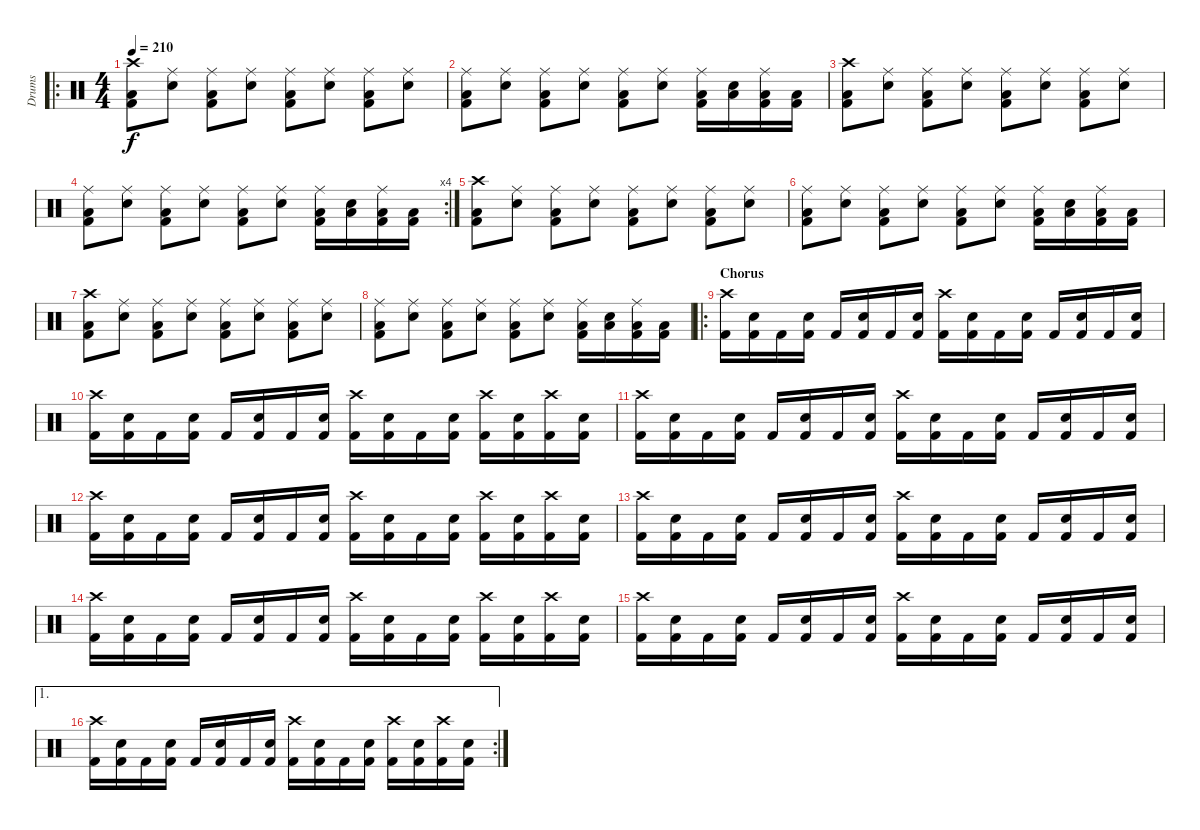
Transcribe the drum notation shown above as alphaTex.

\track ("Drums" "Drums") {instrument percussion}
\staff {score}
\articulation defaults
\ro
\ts (4 4)
\tempo 210
\clef neutral
\ks c
("Crash high (hit)" "Low Floor Tom (hit)" "Kick (hit) 2").8{dy f} ("Ride (middle)" "Snare (hit) 2").8 ("Ride (middle)" "Low Floor Tom (hit)" "Kick (hit) 2").8 ("Ride (middle)" "Snare (hit) 2").8 ("Ride (middle)" "Low Floor Tom (hit)" "Kick (hit) 2").8 ("Ride (middle)" "Snare (hit) 2").8 ("Ride (middle)" "Low Floor Tom (hit)" "Kick (hit) 2").8 ("Ride (middle)" "Snare (hit) 2").8 |
("Ride (middle)" "Low Floor Tom (hit)" "Kick (hit) 2").8 ("Ride (middle)" "Snare (hit) 2").8 ("Ride (middle)" "Low Floor Tom (hit)" "Kick (hit) 2").8 ("Ride (middle)" "Snare (hit) 2").8 ("Ride (middle)" "Low Floor Tom (hit)" "Kick (hit) 2").8 ("Ride (middle)" "Snare (hit) 2").8 ("Ride (middle)" "Low Floor Tom (hit)" "Kick (hit) 2").16 ("Low Floor Tom (hit)" "Snare (hit) 2").16 ("Ride (middle)" "Low Floor Tom (hit)" "Kick (hit) 2").16 ("Low Floor Tom (hit)" "Kick (hit) 2").16 |
("Crash high (hit)" "Low Floor Tom (hit)" "Kick (hit) 2").8 ("Ride (middle)" "Snare (hit) 2").8 ("Ride (middle)" "Low Floor Tom (hit)" "Kick (hit) 2").8 ("Ride (middle)" "Snare (hit) 2").8 ("Ride (middle)" "Low Floor Tom (hit)" "Kick (hit) 2").8 ("Ride (middle)" "Snare (hit) 2").8 ("Ride (middle)" "Low Floor Tom (hit)" "Kick (hit) 2").8 ("Ride (middle)" "Snare (hit) 2").8 |
\rc 4
("Ride (middle)" "Low Floor Tom (hit)" "Kick (hit) 2").8 ("Ride (middle)" "Snare (hit) 2").8 ("Ride (middle)" "Low Floor Tom (hit)" "Kick (hit) 2").8 ("Ride (middle)" "Snare (hit) 2").8 ("Ride (middle)" "Low Floor Tom (hit)" "Kick (hit) 2").8 ("Ride (middle)" "Snare (hit) 2").8 ("Ride (middle)" "Low Floor Tom (hit)" "Kick (hit) 2").16 ("Low Floor Tom (hit)" "Snare (hit) 2").16 ("Ride (middle)" "Low Floor Tom (hit)" "Kick (hit) 2").16 ("Low Floor Tom (hit)" "Kick (hit) 2").16 |
("Crash high (hit)" "Low Floor Tom (hit)" "Kick (hit) 2").8 ("Ride (middle)" "Snare (hit) 2").8 ("Ride (middle)" "Low Floor Tom (hit)" "Kick (hit) 2").8 ("Ride (middle)" "Snare (hit) 2").8 ("Ride (middle)" "Low Floor Tom (hit)" "Kick (hit) 2").8 ("Ride (middle)" "Snare (hit) 2").8 ("Ride (middle)" "Low Floor Tom (hit)" "Kick (hit) 2").8 ("Ride (middle)" "Snare (hit) 2").8 |
("Ride (middle)" "Low Floor Tom (hit)" "Kick (hit) 2").8 ("Ride (middle)" "Snare (hit) 2").8 ("Ride (middle)" "Low Floor Tom (hit)" "Kick (hit) 2").8 ("Ride (middle)" "Snare (hit) 2").8 ("Ride (middle)" "Low Floor Tom (hit)" "Kick (hit) 2").8 ("Ride (middle)" "Snare (hit) 2").8 ("Ride (middle)" "Low Floor Tom (hit)" "Kick (hit) 2").16 ("Low Floor Tom (hit)" "Snare (hit) 2").16 ("Ride (middle)" "Low Floor Tom (hit)" "Kick (hit) 2").16 ("Low Floor Tom (hit)" "Kick (hit) 2").16 |
("Crash high (hit)" "Low Floor Tom (hit)" "Kick (hit) 2").8 ("Ride (middle)" "Snare (hit) 2").8 ("Ride (middle)" "Low Floor Tom (hit)" "Kick (hit) 2").8 ("Ride (middle)" "Snare (hit) 2").8 ("Ride (middle)" "Low Floor Tom (hit)" "Kick (hit) 2").8 ("Ride (middle)" "Snare (hit) 2").8 ("Ride (middle)" "Low Floor Tom (hit)" "Kick (hit) 2").8 ("Ride (middle)" "Snare (hit) 2").8 |
("Ride (middle)" "Low Floor Tom (hit)" "Kick (hit) 2").8 ("Ride (middle)" "Snare (hit) 2").8 ("Ride (middle)" "Low Floor Tom (hit)" "Kick (hit) 2").8 ("Ride (middle)" "Snare (hit) 2").8 ("Ride (middle)" "Low Floor Tom (hit)" "Kick (hit) 2").8 ("Ride (middle)" "Snare (hit) 2").8 ("Ride (middle)" "Low Floor Tom (hit)" "Kick (hit) 2").16 ("Low Floor Tom (hit)" "Snare (hit) 2").16 ("Ride (middle)" "Low Floor Tom (hit)" "Kick (hit) 2").16 ("Low Floor Tom (hit)" "Kick (hit) 2").16 |
\ro
\section ("" "Chorus")
("Crash high (hit)" "Kick (hit) 2").16 ("Snare (hit) 2" "Kick (hit) 2").16 "Kick (hit) 2".16 ("Snare (hit) 2" "Kick (hit) 2").16 "Kick (hit) 2".16 ("Snare (hit) 2" "Kick (hit) 2").16 "Kick (hit) 2".16 ("Snare (hit) 2" "Kick (hit) 2").16 ("Crash high (hit)" "Kick (hit) 2").16 ("Snare (hit) 2" "Kick (hit) 2").16 "Kick (hit) 2".16 ("Snare (hit) 2" "Kick (hit) 2").16 "Kick (hit) 2".16 ("Snare (hit) 2" "Kick (hit) 2").16 "Kick (hit) 2".16 ("Snare (hit) 2" "Kick (hit) 2").16 |
("Crash high (hit)" "Kick (hit) 2").16 ("Snare (hit) 2" "Kick (hit) 2").16 "Kick (hit) 2".16 ("Snare (hit) 2" "Kick (hit) 2").16 "Kick (hit) 2".16 ("Snare (hit) 2" "Kick (hit) 2").16 "Kick (hit) 2".16 ("Snare (hit) 2" "Kick (hit) 2").16 ("Crash high (hit)" "Kick (hit) 2").16 ("Snare (hit) 2" "Kick (hit) 2").16 "Kick (hit) 2".16 ("Snare (hit) 2" "Kick (hit) 2").16 ("Crash high (hit)" "Kick (hit) 2").16 ("Snare (hit) 2" "Kick (hit) 2").16 ("Crash high (hit)" "Kick (hit) 2").16 ("Snare (hit) 2" "Kick (hit) 2").16 |
("Crash high (hit)" "Kick (hit) 2").16 ("Snare (hit) 2" "Kick (hit) 2").16 "Kick (hit) 2".16 ("Snare (hit) 2" "Kick (hit) 2").16 "Kick (hit) 2".16 ("Snare (hit) 2" "Kick (hit) 2").16 "Kick (hit) 2".16 ("Snare (hit) 2" "Kick (hit) 2").16 ("Crash high (hit)" "Kick (hit) 2").16 ("Snare (hit) 2" "Kick (hit) 2").16 "Kick (hit) 2".16 ("Snare (hit) 2" "Kick (hit) 2").16 "Kick (hit) 2".16 ("Snare (hit) 2" "Kick (hit) 2").16 "Kick (hit) 2".16 ("Snare (hit) 2" "Kick (hit) 2").16 |
("Crash high (hit)" "Kick (hit) 2").16 ("Snare (hit) 2" "Kick (hit) 2").16 "Kick (hit) 2".16 ("Snare (hit) 2" "Kick (hit) 2").16 "Kick (hit) 2".16 ("Snare (hit) 2" "Kick (hit) 2").16 "Kick (hit) 2".16 ("Snare (hit) 2" "Kick (hit) 2").16 ("Crash high (hit)" "Kick (hit) 2").16 ("Snare (hit) 2" "Kick (hit) 2").16 "Kick (hit) 2".16 ("Snare (hit) 2" "Kick (hit) 2").16 ("Crash high (hit)" "Kick (hit) 2").16 ("Snare (hit) 2" "Kick (hit) 2").16 ("Crash high (hit)" "Kick (hit) 2").16 ("Snare (hit) 2" "Kick (hit) 2").16 |
("Crash high (hit)" "Kick (hit) 2").16 ("Snare (hit) 2" "Kick (hit) 2").16 "Kick (hit) 2".16 ("Snare (hit) 2" "Kick (hit) 2").16 "Kick (hit) 2".16 ("Snare (hit) 2" "Kick (hit) 2").16 "Kick (hit) 2".16 ("Snare (hit) 2" "Kick (hit) 2").16 ("Crash high (hit)" "Kick (hit) 2").16 ("Snare (hit) 2" "Kick (hit) 2").16 "Kick (hit) 2".16 ("Snare (hit) 2" "Kick (hit) 2").16 "Kick (hit) 2".16 ("Snare (hit) 2" "Kick (hit) 2").16 "Kick (hit) 2".16 ("Snare (hit) 2" "Kick (hit) 2").16 |
("Crash high (hit)" "Kick (hit) 2").16 ("Snare (hit) 2" "Kick (hit) 2").16 "Kick (hit) 2".16 ("Snare (hit) 2" "Kick (hit) 2").16 "Kick (hit) 2".16 ("Snare (hit) 2" "Kick (hit) 2").16 "Kick (hit) 2".16 ("Snare (hit) 2" "Kick (hit) 2").16 ("Crash high (hit)" "Kick (hit) 2").16 ("Snare (hit) 2" "Kick (hit) 2").16 "Kick (hit) 2".16 ("Snare (hit) 2" "Kick (hit) 2").16 ("Crash high (hit)" "Kick (hit) 2").16 ("Snare (hit) 2" "Kick (hit) 2").16 ("Crash high (hit)" "Kick (hit) 2").16 ("Snare (hit) 2" "Kick (hit) 2").16 |
("Crash high (hit)" "Kick (hit) 2").16 ("Snare (hit) 2" "Kick (hit) 2").16 "Kick (hit) 2".16 ("Snare (hit) 2" "Kick (hit) 2").16 "Kick (hit) 2".16 ("Snare (hit) 2" "Kick (hit) 2").16 "Kick (hit) 2".16 ("Snare (hit) 2" "Kick (hit) 2").16 ("Crash high (hit)" "Kick (hit) 2").16 ("Snare (hit) 2" "Kick (hit) 2").16 "Kick (hit) 2".16 ("Snare (hit) 2" "Kick (hit) 2").16 "Kick (hit) 2".16 ("Snare (hit) 2" "Kick (hit) 2").16 "Kick (hit) 2".16 ("Snare (hit) 2" "Kick (hit) 2").16 |
\ae 1
\rc 2
("Crash high (hit)" "Kick (hit) 2").16 ("Snare (hit) 2" "Kick (hit) 2").16 "Kick (hit) 2".16 ("Snare (hit) 2" "Kick (hit) 2").16 "Kick (hit) 2".16 ("Snare (hit) 2" "Kick (hit) 2").16 "Kick (hit) 2".16 ("Snare (hit) 2" "Kick (hit) 2").16 ("Crash high (hit)" "Kick (hit) 2").16 ("Snare (hit) 2" "Kick (hit) 2").16 "Kick (hit) 2".16 ("Snare (hit) 2" "Kick (hit) 2").16 ("Crash high (hit)" "Kick (hit) 2").16 ("Snare (hit) 2" "Kick (hit) 2").16 ("Crash high (hit)" "Kick (hit) 2").16 ("Snare (hit) 2" "Kick (hit) 2").16
